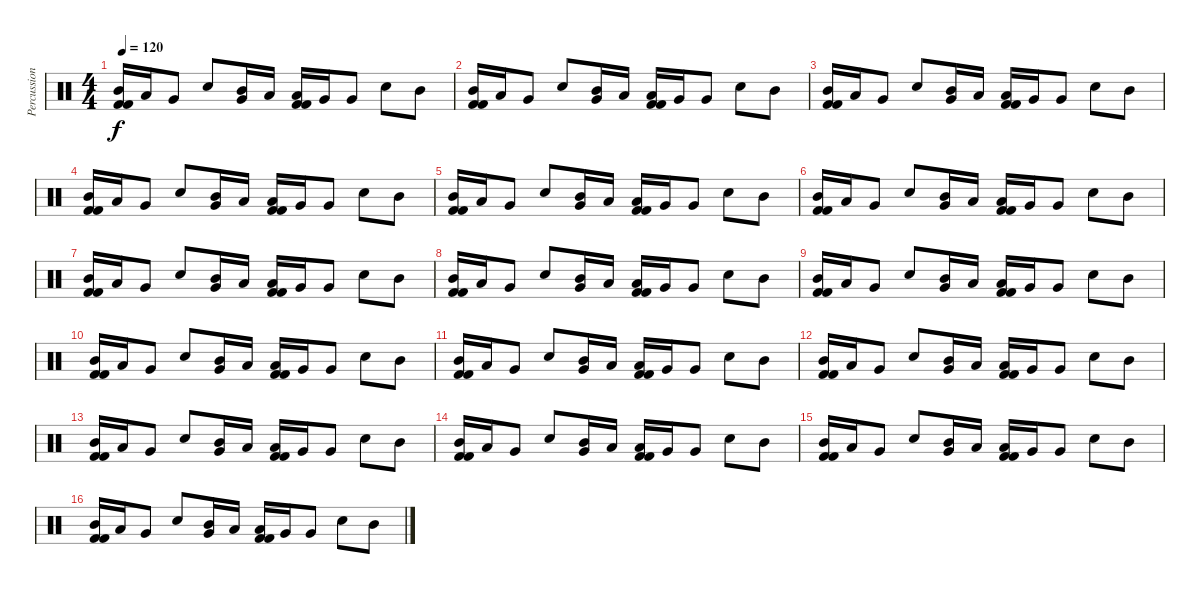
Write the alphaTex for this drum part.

\track ("Percussions" "Percussion") {instrument percussion}
\staff {score}
\articulation defaults
\ts (4 4)
\tempo 120
\clef neutral
\ks c
("Kick (hit) 2" "Mid Tom (hit)" "Kick (hit) 2").16{dy f} "Low Tom (hit)".16 "Very Low Tom (hit)".8 "Snare (hit) 2".8 ("Mid Tom (hit)" "Very Low Tom (hit)").16 "Low Tom (hit)".16 ("Kick (hit) 2" "Low Tom (hit)" "Kick (hit) 2").16 "Very Low Tom (hit)".16 "Very Low Tom (hit)".8 "Snare (hit) 2".8 "Mid Tom (hit)".8 |
("Kick (hit) 2" "Mid Tom (hit)" "Kick (hit) 2").16 "Low Tom (hit)".16 "Very Low Tom (hit)".8 "Snare (hit) 2".8 ("Mid Tom (hit)" "Very Low Tom (hit)").16 "Low Tom (hit)".16 ("Kick (hit) 2" "Low Tom (hit)" "Kick (hit) 2").16 "Very Low Tom (hit)".16 "Very Low Tom (hit)".8 "Snare (hit) 2".8 "Mid Tom (hit)".8 |
("Kick (hit) 2" "Mid Tom (hit)" "Kick (hit) 2").16 "Low Tom (hit)".16 "Very Low Tom (hit)".8 "Snare (hit) 2".8 ("Mid Tom (hit)" "Very Low Tom (hit)").16 "Low Tom (hit)".16 ("Kick (hit) 2" "Low Tom (hit)" "Kick (hit) 2").16 "Very Low Tom (hit)".16 "Very Low Tom (hit)".8 "Snare (hit) 2".8 "Mid Tom (hit)".8 |
("Kick (hit) 2" "Mid Tom (hit)" "Kick (hit) 2").16 "Low Tom (hit)".16 "Very Low Tom (hit)".8 "Snare (hit) 2".8 ("Mid Tom (hit)" "Very Low Tom (hit)").16 "Low Tom (hit)".16 ("Kick (hit) 2" "Low Tom (hit)" "Kick (hit) 2").16 "Very Low Tom (hit)".16 "Very Low Tom (hit)".8 "Snare (hit) 2".8 "Mid Tom (hit)".8 |
("Kick (hit) 2" "Mid Tom (hit)" "Kick (hit) 2").16 "Low Tom (hit)".16 "Very Low Tom (hit)".8 "Snare (hit) 2".8 ("Mid Tom (hit)" "Very Low Tom (hit)").16 "Low Tom (hit)".16 ("Kick (hit) 2" "Low Tom (hit)" "Kick (hit) 2").16 "Very Low Tom (hit)".16 "Very Low Tom (hit)".8 "Snare (hit) 2".8 "Mid Tom (hit)".8 |
("Kick (hit) 2" "Mid Tom (hit)" "Kick (hit) 2").16 "Low Tom (hit)".16 "Very Low Tom (hit)".8 "Snare (hit) 2".8 ("Mid Tom (hit)" "Very Low Tom (hit)").16 "Low Tom (hit)".16 ("Kick (hit) 2" "Low Tom (hit)" "Kick (hit) 2").16 "Very Low Tom (hit)".16 "Very Low Tom (hit)".8 "Snare (hit) 2".8 "Mid Tom (hit)".8 |
("Kick (hit) 2" "Mid Tom (hit)" "Kick (hit) 2").16 "Low Tom (hit)".16 "Very Low Tom (hit)".8 "Snare (hit) 2".8 ("Mid Tom (hit)" "Very Low Tom (hit)").16 "Low Tom (hit)".16 ("Kick (hit) 2" "Low Tom (hit)" "Kick (hit) 2").16 "Very Low Tom (hit)".16 "Very Low Tom (hit)".8 "Snare (hit) 2".8 "Mid Tom (hit)".8 |
("Kick (hit) 2" "Mid Tom (hit)" "Kick (hit) 2").16 "Low Tom (hit)".16 "Very Low Tom (hit)".8 "Snare (hit) 2".8 ("Mid Tom (hit)" "Very Low Tom (hit)").16 "Low Tom (hit)".16 ("Kick (hit) 2" "Low Tom (hit)" "Kick (hit) 2").16 "Very Low Tom (hit)".16 "Very Low Tom (hit)".8 "Snare (hit) 2".8 "Mid Tom (hit)".8 |
("Kick (hit) 2" "Mid Tom (hit)" "Kick (hit) 2").16 "Low Tom (hit)".16 "Very Low Tom (hit)".8 "Snare (hit) 2".8 ("Mid Tom (hit)" "Very Low Tom (hit)").16 "Low Tom (hit)".16 ("Kick (hit) 2" "Low Tom (hit)" "Kick (hit) 2").16 "Very Low Tom (hit)".16 "Very Low Tom (hit)".8 "Snare (hit) 2".8 "Mid Tom (hit)".8 |
("Kick (hit) 2" "Mid Tom (hit)" "Kick (hit) 2").16 "Low Tom (hit)".16 "Very Low Tom (hit)".8 "Snare (hit) 2".8 ("Mid Tom (hit)" "Very Low Tom (hit)").16 "Low Tom (hit)".16 ("Kick (hit) 2" "Low Tom (hit)" "Kick (hit) 2").16 "Very Low Tom (hit)".16 "Very Low Tom (hit)".8 "Snare (hit) 2".8 "Mid Tom (hit)".8 |
("Kick (hit) 2" "Mid Tom (hit)" "Kick (hit) 2").16 "Low Tom (hit)".16 "Very Low Tom (hit)".8 "Snare (hit) 2".8 ("Mid Tom (hit)" "Very Low Tom (hit)").16 "Low Tom (hit)".16 ("Kick (hit) 2" "Low Tom (hit)" "Kick (hit) 2").16 "Very Low Tom (hit)".16 "Very Low Tom (hit)".8 "Snare (hit) 2".8 "Mid Tom (hit)".8 |
("Kick (hit) 2" "Mid Tom (hit)" "Kick (hit) 2").16 "Low Tom (hit)".16 "Very Low Tom (hit)".8 "Snare (hit) 2".8 ("Mid Tom (hit)" "Very Low Tom (hit)").16 "Low Tom (hit)".16 ("Kick (hit) 2" "Low Tom (hit)" "Kick (hit) 2").16 "Very Low Tom (hit)".16 "Very Low Tom (hit)".8 "Snare (hit) 2".8 "Mid Tom (hit)".8 |
("Kick (hit) 2" "Mid Tom (hit)" "Kick (hit) 2").16 "Low Tom (hit)".16 "Very Low Tom (hit)".8 "Snare (hit) 2".8 ("Mid Tom (hit)" "Very Low Tom (hit)").16 "Low Tom (hit)".16 ("Kick (hit) 2" "Low Tom (hit)" "Kick (hit) 2").16 "Very Low Tom (hit)".16 "Very Low Tom (hit)".8 "Snare (hit) 2".8 "Mid Tom (hit)".8 |
("Kick (hit) 2" "Mid Tom (hit)" "Kick (hit) 2").16 "Low Tom (hit)".16 "Very Low Tom (hit)".8 "Snare (hit) 2".8 ("Mid Tom (hit)" "Very Low Tom (hit)").16 "Low Tom (hit)".16 ("Kick (hit) 2" "Low Tom (hit)" "Kick (hit) 2").16 "Very Low Tom (hit)".16 "Very Low Tom (hit)".8 "Snare (hit) 2".8 "Mid Tom (hit)".8 |
("Kick (hit) 2" "Mid Tom (hit)" "Kick (hit) 2").16 "Low Tom (hit)".16 "Very Low Tom (hit)".8 "Snare (hit) 2".8 ("Mid Tom (hit)" "Very Low Tom (hit)").16 "Low Tom (hit)".16 ("Kick (hit) 2" "Low Tom (hit)" "Kick (hit) 2").16 "Very Low Tom (hit)".16 "Very Low Tom (hit)".8 "Snare (hit) 2".8 "Mid Tom (hit)".8 |
("Kick (hit) 2" "Mid Tom (hit)" "Kick (hit) 2").16 "Low Tom (hit)".16 "Very Low Tom (hit)".8 "Snare (hit) 2".8 ("Mid Tom (hit)" "Very Low Tom (hit)").16 "Low Tom (hit)".16 ("Kick (hit) 2" "Low Tom (hit)" "Kick (hit) 2").16 "Very Low Tom (hit)".16 "Very Low Tom (hit)".8 "Snare (hit) 2".8 "Mid Tom (hit)".8
